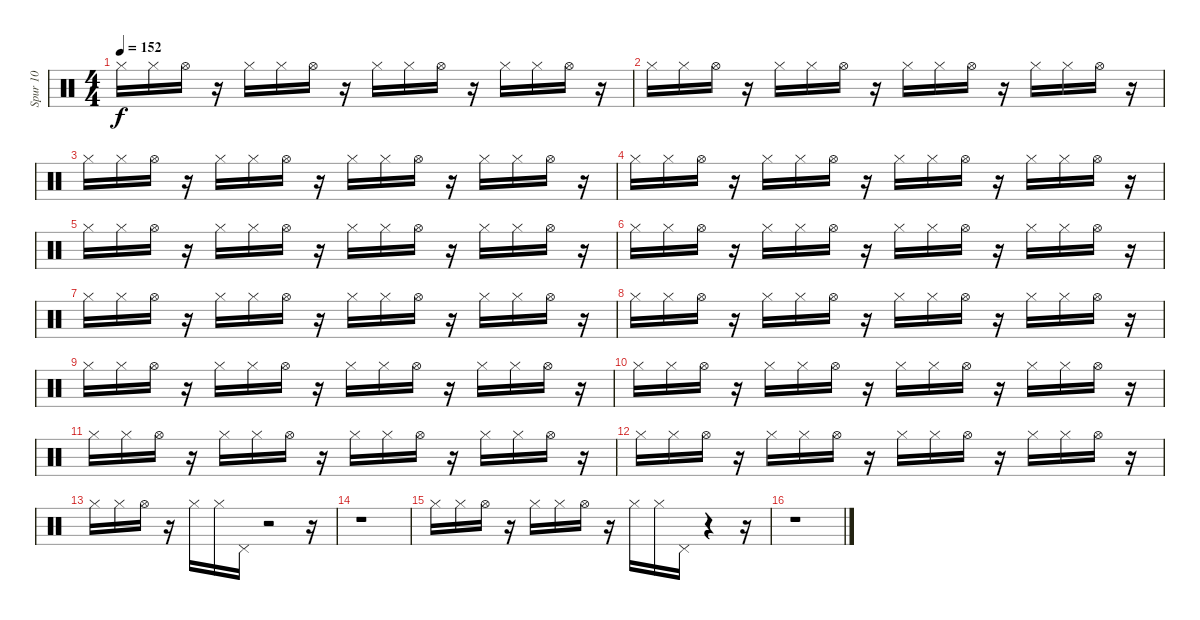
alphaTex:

\track ("Spur 10" "Spur 10") {instrument percussion}
\staff {score}
\articulation defaults
\ts (4 4)
\tempo 152
\clef neutral
\ks c "Hi-Hat (closed)".16{dy f} "Hi-Hat (closed)".16 "Hi-Hat (open)".16
r.16 "Hi-Hat (closed)".16 "Hi-Hat (closed)".16 "Hi-Hat (open)".16 r.16 "Hi-Hat (closed)".16 "Hi-Hat (closed)".16 "Hi-Hat (open)".16 r.16 "Hi-Hat (closed)".16 "Hi-Hat (closed)".16 "Hi-Hat (open)".16 r.16 |
"Hi-Hat (closed)".16 "Hi-Hat (closed)".16 "Hi-Hat (open)".16 r.16 "Hi-Hat (closed)".16 "Hi-Hat (closed)".16 "Hi-Hat (open)".16 r.16 "Hi-Hat (closed)".16 "Hi-Hat (closed)".16 "Hi-Hat (open)".16 r.16 "Hi-Hat (closed)".16 "Hi-Hat (closed)".16 "Hi-Hat (open)".16 r.16 |
"Hi-Hat (closed)".16 "Hi-Hat (closed)".16 "Hi-Hat (open)".16 r.16 "Hi-Hat (closed)".16 "Hi-Hat (closed)".16 "Hi-Hat (open)".16 r.16 "Hi-Hat (closed)".16 "Hi-Hat (closed)".16 "Hi-Hat (open)".16 r.16 "Hi-Hat (closed)".16 "Hi-Hat (closed)".16 "Hi-Hat (open)".16 r.16 |
"Hi-Hat (closed)".16 "Hi-Hat (closed)".16 "Hi-Hat (open)".16 r.16 "Hi-Hat (closed)".16 "Hi-Hat (closed)".16 "Hi-Hat (open)".16 r.16 "Hi-Hat (closed)".16 "Hi-Hat (closed)".16 "Hi-Hat (open)".16 r.16 "Hi-Hat (closed)".16 "Hi-Hat (closed)".16 "Hi-Hat (open)".16 r.16 |
"Hi-Hat (closed)".16 "Hi-Hat (closed)".16 "Hi-Hat (open)".16 r.16 "Hi-Hat (closed)".16 "Hi-Hat (closed)".16 "Hi-Hat (open)".16 r.16 "Hi-Hat (closed)".16 "Hi-Hat (closed)".16 "Hi-Hat (open)".16 r.16 "Hi-Hat (closed)".16 "Hi-Hat (closed)".16 "Hi-Hat (open)".16 r.16 |
"Hi-Hat (closed)".16 "Hi-Hat (closed)".16 "Hi-Hat (open)".16 r.16 "Hi-Hat (closed)".16 "Hi-Hat (closed)".16 "Hi-Hat (open)".16 r.16 "Hi-Hat (closed)".16 "Hi-Hat (closed)".16 "Hi-Hat (open)".16 r.16 "Hi-Hat (closed)".16 "Hi-Hat (closed)".16 "Hi-Hat (open)".16 r.16 |
"Hi-Hat (closed)".16 "Hi-Hat (closed)".16 "Hi-Hat (open)".16 r.16 "Hi-Hat (closed)".16 "Hi-Hat (closed)".16 "Hi-Hat (open)".16 r.16 "Hi-Hat (closed)".16 "Hi-Hat (closed)".16 "Hi-Hat (open)".16 r.16 "Hi-Hat (closed)".16 "Hi-Hat (closed)".16 "Hi-Hat (open)".16 r.16 |
"Hi-Hat (closed)".16 "Hi-Hat (closed)".16 "Hi-Hat (open)".16 r.16 "Hi-Hat (closed)".16 "Hi-Hat (closed)".16 "Hi-Hat (open)".16 r.16 "Hi-Hat (closed)".16 "Hi-Hat (closed)".16 "Hi-Hat (open)".16 r.16 "Hi-Hat (closed)".16 "Hi-Hat (closed)".16 "Hi-Hat (open)".16 r.16 |
"Hi-Hat (closed)".16 "Hi-Hat (closed)".16 "Hi-Hat (open)".16 r.16 "Hi-Hat (closed)".16 "Hi-Hat (closed)".16 "Hi-Hat (open)".16 r.16 "Hi-Hat (closed)".16 "Hi-Hat (closed)".16 "Hi-Hat (open)".16 r.16 "Hi-Hat (closed)".16 "Hi-Hat (closed)".16 "Hi-Hat (open)".16 r.16 |
"Hi-Hat (closed)".16 "Hi-Hat (closed)".16 "Hi-Hat (open)".16 r.16 "Hi-Hat (closed)".16 "Hi-Hat (closed)".16 "Hi-Hat (open)".16 r.16 "Hi-Hat (closed)".16 "Hi-Hat (closed)".16 "Hi-Hat (open)".16 r.16 "Hi-Hat (closed)".16 "Hi-Hat (closed)".16 "Hi-Hat (open)".16 r.16 |
"Hi-Hat (closed)".16 "Hi-Hat (closed)".16 "Hi-Hat (open)".16 r.16 "Hi-Hat (closed)".16 "Hi-Hat (closed)".16 "Hi-Hat (open)".16 r.16 "Hi-Hat (closed)".16 "Hi-Hat (closed)".16 "Hi-Hat (open)".16 r.16 "Hi-Hat (closed)".16 "Hi-Hat (closed)".16 "Hi-Hat (open)".16 r.16 |
"Hi-Hat (closed)".16 "Hi-Hat (closed)".16 "Hi-Hat (open)".16 r.16 "Hi-Hat (closed)".16 "Hi-Hat (closed)".16 "Hi-Hat (open)".16 r.16 "Hi-Hat (closed)".16 "Hi-Hat (closed)".16 "Hi-Hat (open)".16 r.16 "Hi-Hat (closed)".16 "Hi-Hat (closed)".16 "Hi-Hat (open)".16 r.16 |
"Hi-Hat (closed)".16 "Hi-Hat (closed)".16 "Hi-Hat (open)".16 r.16 "Hi-Hat (closed)".16 "Hi-Hat (closed)".16 "Pedal Hi-Hat (hit)".16 r.2 r.16 |
r.1 |
"Hi-Hat (closed)".16 "Hi-Hat (closed)".16 "Hi-Hat (open)".16 r.16 "Hi-Hat (closed)".16 "Hi-Hat (closed)".16 "Hi-Hat (open)".16 r.16 "Hi-Hat (closed)".16 "Hi-Hat (closed)".16 "Pedal Hi-Hat (hit)".16 r.4 r.16 |
r.1
